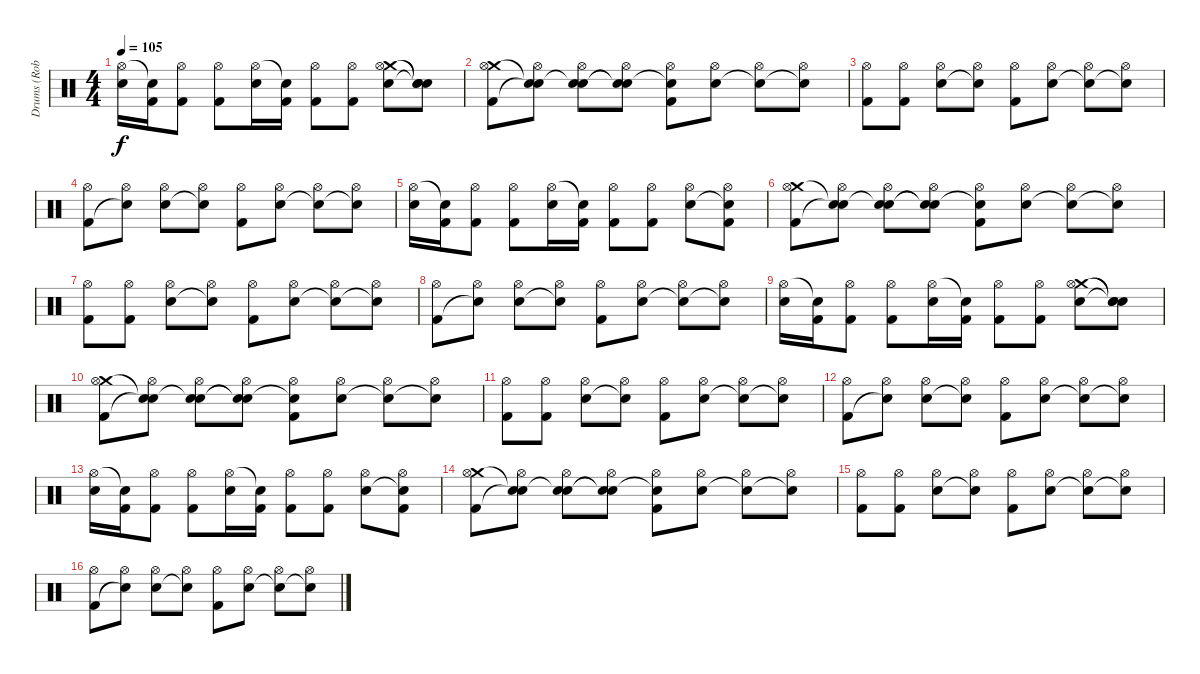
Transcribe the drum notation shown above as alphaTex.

\track ("Drums (Rob Bourdon)" "Drums (Rob") {instrument percussion}
\staff {score}
\articulation defaults
\ts (4 4)
\tempo 105
\clef neutral
\ks c
("Hi-Hat (open)" "Electric Snare (hit)").16{dy f} ("Snare (hit)"{t} "Kick (hit) 2").16 ("Hi-Hat (open)" "Kick (hit) 2").8 ("Hi-Hat (open)" "Kick (hit) 2").8 ("Hi-Hat (open)" "Electric Snare (hit)").16 ("Snare (hit)"{t} "Kick (hit) 2").16 ("Hi-Hat (open)" "Kick (hit) 2").8 ("Hi-Hat (open)" "Kick (hit) 2").8 ("Crash medium (hit)" "Hi-Hat (open)" "Electric Snare (hit)").8 ("Snare (hit)"{t} "Snare (hit)"{t} "Snare (hit)"{t}).8 |
("Crash medium (hit)" "Hi-Hat (open)" "Kick (hit) 2").8 ("Snare (hit)"{t} "Hi-Hat (open)" "Snare (hit)"{t}).8 ("Snare (hit)"{t} "Hi-Hat (open)" "Electric Snare (hit)").8 ("Snare (hit)"{t} "Hi-Hat (open)" "Snare (hit)"{t}).8 ("Snare (hit)"{t} "Hi-Hat (open)" "Kick (hit) 2").8 ("Hi-Hat (open)" "Electric Snare (hit)").8 ("Hi-Hat (open)" "Snare (hit)"{t}).8 ("Hi-Hat (open)" "Snare (hit)"{t}).8 |
("Hi-Hat (open)" "Kick (hit) 2").8 ("Hi-Hat (open)" "Kick (hit) 2").8 ("Hi-Hat (open)" "Electric Snare (hit)").8 ("Hi-Hat (open)" "Snare (hit)"{t}).8 ("Hi-Hat (open)" "Kick (hit) 2").8 ("Hi-Hat (open)" "Electric Snare (hit)").8 ("Hi-Hat (open)" "Snare (hit)"{t}).8 ("Hi-Hat (open)" "Snare (hit)"{t}).8 |
("Hi-Hat (open)" "Kick (hit) 2").8 ("Hi-Hat (open)" "Snare (hit)"{t}).8 ("Hi-Hat (open)" "Electric Snare (hit)").8 ("Hi-Hat (open)" "Snare (hit)"{t}).8 ("Hi-Hat (open)" "Kick (hit) 2").8 ("Hi-Hat (open)" "Electric Snare (hit)").8 ("Hi-Hat (open)" "Snare (hit)"{t}).8 ("Hi-Hat (open)" "Snare (hit)"{t}).8 |
("Hi-Hat (open)" "Electric Snare (hit)").16 ("Snare (hit)"{t} "Kick (hit) 2").16 ("Hi-Hat (open)" "Kick (hit) 2").8 ("Hi-Hat (open)" "Kick (hit) 2").8 ("Hi-Hat (open)" "Electric Snare (hit)").16 ("Snare (hit)"{t} "Kick (hit) 2").16 ("Hi-Hat (open)" "Kick (hit) 2").8 ("Hi-Hat (open)" "Kick (hit) 2").8 ("Hi-Hat (open)" "Electric Snare (hit)").8 ("Hi-Hat (open)" "Snare (hit)"{t} "Kick (hit) 2").8 |
("Crash medium (hit)" "Hi-Hat (open)" "Kick (hit) 2").8 ("Snare (hit)"{t} "Hi-Hat (open)" "Snare (hit)"{t}).8 ("Snare (hit)"{t} "Hi-Hat (open)" "Electric Snare (hit)").8 ("Snare (hit)"{t} "Hi-Hat (open)" "Snare (hit)"{t}).8 ("Snare (hit)"{t} "Hi-Hat (open)" "Kick (hit) 2").8 ("Hi-Hat (open)" "Electric Snare (hit)").8 ("Hi-Hat (open)" "Snare (hit)"{t}).8 ("Hi-Hat (open)" "Snare (hit)"{t}).8 |
("Hi-Hat (open)" "Kick (hit) 2").8 ("Hi-Hat (open)" "Kick (hit) 2").8 ("Hi-Hat (open)" "Electric Snare (hit)").8 ("Hi-Hat (open)" "Snare (hit)"{t}).8 ("Hi-Hat (open)" "Kick (hit) 2").8 ("Hi-Hat (open)" "Electric Snare (hit)").8 ("Hi-Hat (open)" "Snare (hit)"{t}).8 ("Hi-Hat (open)" "Snare (hit)"{t}).8 |
("Hi-Hat (open)" "Kick (hit) 2").8 ("Hi-Hat (open)" "Snare (hit)"{t}).8 ("Hi-Hat (open)" "Electric Snare (hit)").8 ("Hi-Hat (open)" "Snare (hit)"{t}).8 ("Hi-Hat (open)" "Kick (hit) 2").8 ("Hi-Hat (open)" "Electric Snare (hit)").8 ("Hi-Hat (open)" "Snare (hit)"{t}).8 ("Hi-Hat (open)" "Snare (hit)"{t}).8 |
("Hi-Hat (open)" "Electric Snare (hit)").16 ("Snare (hit)"{t} "Kick (hit) 2").16 ("Hi-Hat (open)" "Kick (hit) 2").8 ("Hi-Hat (open)" "Kick (hit) 2").8 ("Hi-Hat (open)" "Electric Snare (hit)").16 ("Snare (hit)"{t} "Kick (hit) 2").16 ("Hi-Hat (open)" "Kick (hit) 2").8 ("Hi-Hat (open)" "Kick (hit) 2").8 ("Crash medium (hit)" "Hi-Hat (open)" "Electric Snare (hit)").8 ("Snare (hit)"{t} "Snare (hit)"{t} "Snare (hit)"{t}).8 |
("Crash medium (hit)" "Hi-Hat (open)" "Kick (hit) 2").8 ("Snare (hit)"{t} "Hi-Hat (open)" "Snare (hit)"{t}).8 ("Snare (hit)"{t} "Hi-Hat (open)" "Electric Snare (hit)").8 ("Snare (hit)"{t} "Hi-Hat (open)" "Snare (hit)"{t}).8 ("Snare (hit)"{t} "Hi-Hat (open)" "Kick (hit) 2").8 ("Hi-Hat (open)" "Electric Snare (hit)").8 ("Hi-Hat (open)" "Snare (hit)"{t}).8 ("Hi-Hat (open)" "Snare (hit)"{t}).8 |
("Hi-Hat (open)" "Kick (hit) 2").8 ("Hi-Hat (open)" "Kick (hit) 2").8 ("Hi-Hat (open)" "Electric Snare (hit)").8 ("Hi-Hat (open)" "Snare (hit)"{t}).8 ("Hi-Hat (open)" "Kick (hit) 2").8 ("Hi-Hat (open)" "Electric Snare (hit)").8 ("Hi-Hat (open)" "Snare (hit)"{t}).8 ("Hi-Hat (open)" "Snare (hit)"{t}).8 |
("Hi-Hat (open)" "Kick (hit) 2").8 ("Hi-Hat (open)" "Snare (hit)"{t}).8 ("Hi-Hat (open)" "Electric Snare (hit)").8 ("Hi-Hat (open)" "Snare (hit)"{t}).8 ("Hi-Hat (open)" "Kick (hit) 2").8 ("Hi-Hat (open)" "Electric Snare (hit)").8 ("Hi-Hat (open)" "Snare (hit)"{t}).8 ("Hi-Hat (open)" "Snare (hit)"{t}).8 |
("Hi-Hat (open)" "Electric Snare (hit)").16 ("Snare (hit)"{t} "Kick (hit) 2").16 ("Hi-Hat (open)" "Kick (hit) 2").8 ("Hi-Hat (open)" "Kick (hit) 2").8 ("Hi-Hat (open)" "Electric Snare (hit)").16 ("Snare (hit)"{t} "Kick (hit) 2").16 ("Hi-Hat (open)" "Kick (hit) 2").8 ("Hi-Hat (open)" "Kick (hit) 2").8 ("Hi-Hat (open)" "Electric Snare (hit)").8 ("Hi-Hat (open)" "Snare (hit)"{t} "Kick (hit) 2").8 |
("Crash medium (hit)" "Hi-Hat (open)" "Kick (hit) 2").8 ("Snare (hit)"{t} "Hi-Hat (open)" "Snare (hit)"{t}).8 ("Snare (hit)"{t} "Hi-Hat (open)" "Electric Snare (hit)").8 ("Snare (hit)"{t} "Hi-Hat (open)" "Snare (hit)"{t}).8 ("Snare (hit)"{t} "Hi-Hat (open)" "Kick (hit) 2").8 ("Hi-Hat (open)" "Electric Snare (hit)").8 ("Hi-Hat (open)" "Snare (hit)"{t}).8 ("Hi-Hat (open)" "Snare (hit)"{t}).8 |
("Hi-Hat (open)" "Kick (hit) 2").8 ("Hi-Hat (open)" "Kick (hit) 2").8 ("Hi-Hat (open)" "Electric Snare (hit)").8 ("Hi-Hat (open)" "Snare (hit)"{t}).8 ("Hi-Hat (open)" "Kick (hit) 2").8 ("Hi-Hat (open)" "Electric Snare (hit)").8 ("Hi-Hat (open)" "Snare (hit)"{t}).8 ("Hi-Hat (open)" "Snare (hit)"{t}).8 |
("Hi-Hat (open)" "Kick (hit) 2").8 ("Hi-Hat (open)" "Snare (hit)"{t}).8 ("Hi-Hat (open)" "Electric Snare (hit)").8 ("Hi-Hat (open)" "Snare (hit)"{t}).8 ("Hi-Hat (open)" "Kick (hit) 2").8 ("Hi-Hat (open)" "Electric Snare (hit)").8 ("Hi-Hat (open)" "Snare (hit)"{t}).8 ("Hi-Hat (open)" "Snare (hit)"{t}).8
